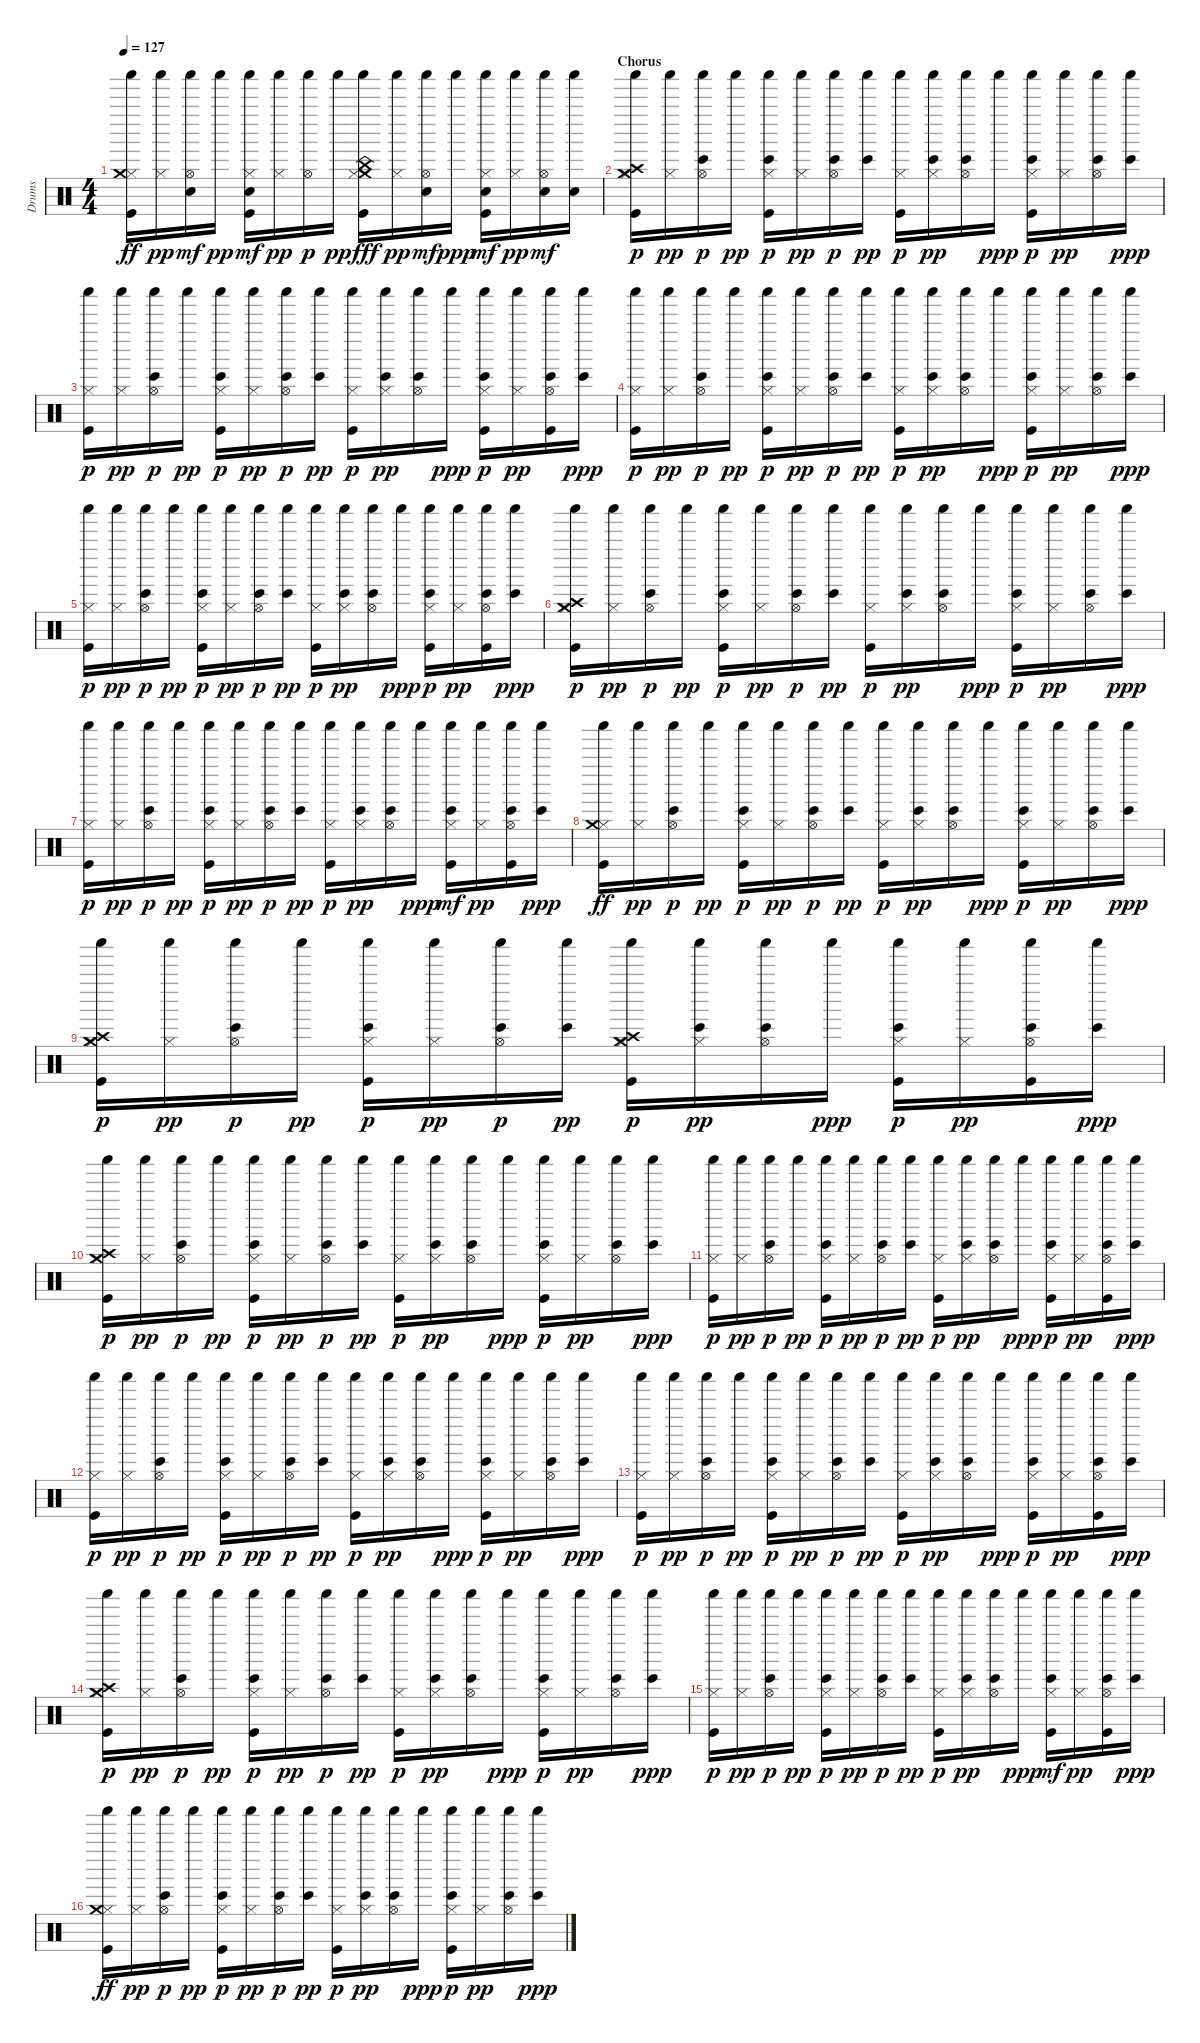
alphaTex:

\track ("Drums" "Drums") {instrument percussion}
\staff {score}
\articulation defaults
\ts (4 4)
\tempo 127
\clef neutral
\ks c
("Hi-Hat (closed)" "Shaker (hit)" "Crash medium (hit)" "Kick (hit)").16{dy ff} ("Hi-Hat (closed)" "Shaker (hit)").16{dy pp} ("Hi-Hat (open)" "Shaker (hit)" "Hand Clap (hit)").16{dy mf} "Shaker (hit)".16{dy pp} ("Hi-Hat (closed)" "Shaker (hit)" "Hand Clap (hit)" "Kick (hit)").16{dy mf} ("Hi-Hat (closed)" "Shaker (hit)").16{dy pp} ("Hi-Hat (open)" "Shaker (hit)").16{dy p} "Shaker (hit)".16{dy pp} ("Shaker (hit)" "Crash medium (hit)" "Kick (hit)" "China (hit)" "Hi-Hat (closed)").16{dy fff} ("Hi-Hat (closed)" "Shaker (hit)").16{dy pp} ("Hi-Hat (open)" "Shaker (hit)" "Hand Clap (hit)").16{dy mf} "Shaker (hit)".16{dy ppp} ("Hi-Hat (closed)" "Shaker (hit)" "Hand Clap (hit)" "Kick (hit)").16{dy mf} ("Hi-Hat (closed)" "Shaker (hit)").16{dy pp} ("Hi-Hat (open)" "Shaker (hit)" "Hand Clap (hit)").16{dy mf} ("Shaker (hit)" "Hand Clap (hit)").16 |
\section ("" "Chorus")
("Hi-Hat (closed)" "Crash medium (hit)" "Shaker (hit)" "Crash high (hit)" "Kick (hit)").16{dy p} ("Hi-Hat (closed)" "Shaker (hit)").16{dy pp} ("Bongo High (hit)" "Hi-Hat (open)" "Shaker (hit)").16{dy p} "Shaker (hit)".16{dy pp} ("Bongo High (hit)" "Kick (hit)" "Hi-Hat (closed)" "Shaker (hit)").16{dy p} ("Hi-Hat (closed)" "Shaker (hit)").16{dy pp} ("Bongo High (hit)" "Hi-Hat (open)" "Shaker (hit)").16{dy p} ("Bongo High (hit)" "Shaker (hit)").16{dy pp} ("Kick (hit)" "Hi-Hat (closed)" "Shaker (hit)").16{dy p} ("Bongo High (hit)" "Hi-Hat (closed)" "Shaker (hit)").16{dy pp} ("Bongo High (hit)" "Hi-Hat (open)" "Shaker (hit)").16 "Shaker (hit)".16{dy ppp} ("Bongo High (hit)" "Kick (hit)" "Hi-Hat (closed)" "Shaker (hit)").16{dy p} ("Hi-Hat (closed)" "Shaker (hit)").16{dy pp} ("Bongo High (hit)" "Hi-Hat (open)" "Shaker (hit)").16 ("Bongo High (hit)" "Shaker (hit)").16{dy ppp} |
("Kick (hit)" "Hi-Hat (closed)" "Shaker (hit)").16{dy p} ("Hi-Hat (closed)" "Shaker (hit)").16{dy pp} ("Bongo High (hit)" "Hi-Hat (open)" "Shaker (hit)").16{dy p} "Shaker (hit)".16{dy pp} ("Bongo High (hit)" "Kick (hit)" "Hi-Hat (closed)" "Shaker (hit)").16{dy p} ("Hi-Hat (closed)" "Shaker (hit)").16{dy pp} ("Bongo High (hit)" "Hi-Hat (open)" "Shaker (hit)").16{dy p} ("Bongo High (hit)" "Shaker (hit)").16{dy pp} ("Kick (hit)" "Hi-Hat (closed)" "Shaker (hit)").16{dy p} ("Bongo High (hit)" "Hi-Hat (closed)" "Shaker (hit)").16{dy pp} ("Bongo High (hit)" "Hi-Hat (open)" "Shaker (hit)").16 "Shaker (hit)".16{dy ppp} ("Bongo High (hit)" "Kick (hit)" "Hi-Hat (closed)" "Shaker (hit)").16{dy p} ("Hi-Hat (closed)" "Shaker (hit)").16{dy pp} ("Kick (hit)" "Bongo High (hit)" "Hi-Hat (open)" "Shaker (hit)").16 ("Bongo High (hit)" "Shaker (hit)").16{dy ppp} |
("Kick (hit)" "Hi-Hat (closed)" "Shaker (hit)").16{dy p} ("Hi-Hat (closed)" "Shaker (hit)").16{dy pp} ("Bongo High (hit)" "Hi-Hat (open)" "Shaker (hit)").16{dy p} "Shaker (hit)".16{dy pp} ("Bongo High (hit)" "Kick (hit)" "Hi-Hat (closed)" "Shaker (hit)").16{dy p} ("Hi-Hat (closed)" "Shaker (hit)").16{dy pp} ("Bongo High (hit)" "Hi-Hat (open)" "Shaker (hit)").16{dy p} ("Bongo High (hit)" "Shaker (hit)").16{dy pp} ("Kick (hit)" "Hi-Hat (closed)" "Shaker (hit)").16{dy p} ("Bongo High (hit)" "Hi-Hat (closed)" "Shaker (hit)").16{dy pp} ("Bongo High (hit)" "Hi-Hat (open)" "Shaker (hit)").16 "Shaker (hit)".16{dy ppp} ("Bongo High (hit)" "Kick (hit)" "Hi-Hat (closed)" "Shaker (hit)").16{dy p} ("Hi-Hat (closed)" "Shaker (hit)").16{dy pp} ("Bongo High (hit)" "Hi-Hat (open)" "Shaker (hit)").16 ("Bongo High (hit)" "Shaker (hit)").16{dy ppp} |
("Kick (hit)" "Hi-Hat (closed)" "Shaker (hit)").16{dy p} ("Hi-Hat (closed)" "Shaker (hit)").16{dy pp} ("Bongo High (hit)" "Hi-Hat (open)" "Shaker (hit)").16{dy p} "Shaker (hit)".16{dy pp} ("Bongo High (hit)" "Kick (hit)" "Hi-Hat (closed)" "Shaker (hit)").16{dy p} ("Hi-Hat (closed)" "Shaker (hit)").16{dy pp} ("Bongo High (hit)" "Hi-Hat (open)" "Shaker (hit)").16{dy p} ("Bongo High (hit)" "Shaker (hit)").16{dy pp} ("Kick (hit)" "Hi-Hat (closed)" "Shaker (hit)").16{dy p} ("Bongo High (hit)" "Hi-Hat (closed)" "Shaker (hit)").16{dy pp} ("Bongo High (hit)" "Hi-Hat (open)" "Shaker (hit)").16 "Shaker (hit)".16{dy ppp} ("Bongo High (hit)" "Kick (hit)" "Hi-Hat (closed)" "Shaker (hit)").16{dy p} ("Hi-Hat (closed)" "Shaker (hit)").16{dy pp} ("Kick (hit)" "Bongo High (hit)" "Hi-Hat (open)" "Shaker (hit)").16 ("Bongo High (hit)" "Shaker (hit)").16{dy ppp} |
("Kick (hit)" "Hi-Hat (closed)" "Crash medium (hit)" "Shaker (hit)" "Crash high (hit)").16{dy p} ("Hi-Hat (closed)" "Shaker (hit)").16{dy pp} ("Bongo High (hit)" "Hi-Hat (open)" "Shaker (hit)").16{dy p} "Shaker (hit)".16{dy pp} ("Bongo High (hit)" "Kick (hit)" "Hi-Hat (closed)" "Shaker (hit)").16{dy p} ("Hi-Hat (closed)" "Shaker (hit)").16{dy pp} ("Bongo High (hit)" "Hi-Hat (open)" "Shaker (hit)").16{dy p} ("Bongo High (hit)" "Shaker (hit)").16{dy pp} ("Kick (hit)" "Hi-Hat (closed)" "Shaker (hit)").16{dy p} ("Bongo High (hit)" "Hi-Hat (closed)" "Shaker (hit)").16{dy pp} ("Bongo High (hit)" "Hi-Hat (open)" "Shaker (hit)").16 "Shaker (hit)".16{dy ppp} ("Bongo High (hit)" "Kick (hit)" "Hi-Hat (closed)" "Shaker (hit)").16{dy p} ("Hi-Hat (closed)" "Shaker (hit)").16{dy pp} ("Bongo High (hit)" "Hi-Hat (open)" "Shaker (hit)").16 ("Bongo High (hit)" "Shaker (hit)").16{dy ppp} |
("Kick (hit)" "Hi-Hat (closed)" "Shaker (hit)").16{dy p} ("Hi-Hat (closed)" "Shaker (hit)").16{dy pp} ("Bongo High (hit)" "Hi-Hat (open)" "Shaker (hit)").16{dy p} "Shaker (hit)".16{dy pp} ("Bongo High (hit)" "Kick (hit)" "Hi-Hat (closed)" "Shaker (hit)").16{dy p} ("Hi-Hat (closed)" "Shaker (hit)").16{dy pp} ("Bongo High (hit)" "Hi-Hat (open)" "Shaker (hit)").16{dy p} ("Bongo High (hit)" "Shaker (hit)").16{dy pp} ("Kick (hit)" "Hi-Hat (closed)" "Shaker (hit)").16{dy p} ("Bongo High (hit)" "Hi-Hat (closed)" "Shaker (hit)").16{dy pp} ("Bongo High (hit)" "Hi-Hat (open)" "Shaker (hit)").16 "Shaker (hit)".16{dy ppp} ("Kick (hit)" "Hi-Hat (closed)" "Shaker (hit)" "Bongo High (hit)").16{dy mf} ("Hi-Hat (closed)" "Shaker (hit)").16{dy pp} ("Kick (hit)" "Bongo High (hit)" "Hi-Hat (open)" "Shaker (hit)").16 ("Bongo High (hit)" "Shaker (hit)").16{dy ppp} |
("Hi-Hat (closed)" "Shaker (hit)" "Crash medium (hit)" "Kick (hit)").16{dy ff} ("Hi-Hat (closed)" "Shaker (hit)").16{dy pp} ("Bongo High (hit)" "Hi-Hat (open)" "Shaker (hit)").16{dy p} "Shaker (hit)".16{dy pp} ("Bongo High (hit)" "Kick (hit)" "Hi-Hat (closed)" "Shaker (hit)").16{dy p} ("Hi-Hat (closed)" "Shaker (hit)").16{dy pp} ("Bongo High (hit)" "Hi-Hat (open)" "Shaker (hit)").16{dy p} ("Bongo High (hit)" "Shaker (hit)").16{dy pp} ("Kick (hit)" "Hi-Hat (closed)" "Shaker (hit)").16{dy p} ("Bongo High (hit)" "Hi-Hat (closed)" "Shaker (hit)").16{dy pp} ("Bongo High (hit)" "Hi-Hat (open)" "Shaker (hit)").16 "Shaker (hit)".16{dy ppp} ("Bongo High (hit)" "Kick (hit)" "Hi-Hat (closed)" "Shaker (hit)").16{dy p} ("Hi-Hat (closed)" "Shaker (hit)").16{dy pp} ("Bongo High (hit)" "Hi-Hat (open)" "Shaker (hit)").16 ("Bongo High (hit)" "Shaker (hit)").16{dy ppp} |
("Shaker (hit)" "Crash medium (hit)" "Kick (hit)" "Crash high (hit)" "Hi-Hat (closed)").16{dy p} ("Hi-Hat (closed)" "Shaker (hit)").16{dy pp} ("Bongo High (hit)" "Hi-Hat (open)" "Shaker (hit)").16{dy p} "Shaker (hit)".16{dy pp} ("Bongo High (hit)" "Kick (hit)" "Hi-Hat (closed)" "Shaker (hit)").16{dy p} ("Hi-Hat (closed)" "Shaker (hit)").16{dy pp} ("Bongo High (hit)" "Hi-Hat (open)" "Shaker (hit)").16{dy p} ("Bongo High (hit)" "Shaker (hit)").16{dy pp} ("Shaker (hit)" "Crash high (hit)" "Kick (hit)" "Crash medium (hit)" "Hi-Hat (closed)").16{dy p} ("Bongo High (hit)" "Hi-Hat (closed)" "Shaker (hit)").16{dy pp} ("Bongo High (hit)" "Hi-Hat (open)" "Shaker (hit)").16 "Shaker (hit)".16{dy ppp} ("Bongo High (hit)" "Kick (hit)" "Hi-Hat (closed)" "Shaker (hit)").16{dy p} ("Hi-Hat (closed)" "Shaker (hit)").16{dy pp} ("Kick (hit)" "Bongo High (hit)" "Hi-Hat (open)" "Shaker (hit)").16 ("Bongo High (hit)" "Shaker (hit)").16{dy ppp} |
("Hi-Hat (closed)" "Crash medium (hit)" "Shaker (hit)" "Crash high (hit)" "Kick (hit)").16{dy p} ("Hi-Hat (closed)" "Shaker (hit)").16{dy pp} ("Bongo High (hit)" "Hi-Hat (open)" "Shaker (hit)").16{dy p} "Shaker (hit)".16{dy pp} ("Bongo High (hit)" "Kick (hit)" "Hi-Hat (closed)" "Shaker (hit)").16{dy p} ("Hi-Hat (closed)" "Shaker (hit)").16{dy pp} ("Bongo High (hit)" "Hi-Hat (open)" "Shaker (hit)").16{dy p} ("Bongo High (hit)" "Shaker (hit)").16{dy pp} ("Kick (hit)" "Hi-Hat (closed)" "Shaker (hit)").16{dy p} ("Bongo High (hit)" "Hi-Hat (closed)" "Shaker (hit)").16{dy pp} ("Bongo High (hit)" "Hi-Hat (open)" "Shaker (hit)").16 "Shaker (hit)".16{dy ppp} ("Bongo High (hit)" "Kick (hit)" "Hi-Hat (closed)" "Shaker (hit)").16{dy p} ("Hi-Hat (closed)" "Shaker (hit)").16{dy pp} ("Bongo High (hit)" "Hi-Hat (open)" "Shaker (hit)").16 ("Bongo High (hit)" "Shaker (hit)").16{dy ppp} |
("Kick (hit)" "Hi-Hat (closed)" "Shaker (hit)").16{dy p} ("Hi-Hat (closed)" "Shaker (hit)").16{dy pp} ("Bongo High (hit)" "Hi-Hat (open)" "Shaker (hit)").16{dy p} "Shaker (hit)".16{dy pp} ("Bongo High (hit)" "Kick (hit)" "Hi-Hat (closed)" "Shaker (hit)").16{dy p} ("Hi-Hat (closed)" "Shaker (hit)").16{dy pp} ("Bongo High (hit)" "Hi-Hat (open)" "Shaker (hit)").16{dy p} ("Bongo High (hit)" "Shaker (hit)").16{dy pp} ("Kick (hit)" "Hi-Hat (closed)" "Shaker (hit)").16{dy p} ("Bongo High (hit)" "Hi-Hat (closed)" "Shaker (hit)").16{dy pp} ("Bongo High (hit)" "Hi-Hat (open)" "Shaker (hit)").16 "Shaker (hit)".16{dy ppp} ("Bongo High (hit)" "Kick (hit)" "Hi-Hat (closed)" "Shaker (hit)").16{dy p} ("Hi-Hat (closed)" "Shaker (hit)").16{dy pp} ("Kick (hit)" "Bongo High (hit)" "Hi-Hat (open)" "Shaker (hit)").16 ("Bongo High (hit)" "Shaker (hit)").16{dy ppp} |
("Kick (hit)" "Hi-Hat (closed)" "Shaker (hit)").16{dy p} ("Hi-Hat (closed)" "Shaker (hit)").16{dy pp} ("Bongo High (hit)" "Hi-Hat (open)" "Shaker (hit)").16{dy p} "Shaker (hit)".16{dy pp} ("Bongo High (hit)" "Kick (hit)" "Hi-Hat (closed)" "Shaker (hit)").16{dy p} ("Hi-Hat (closed)" "Shaker (hit)").16{dy pp} ("Bongo High (hit)" "Hi-Hat (open)" "Shaker (hit)").16{dy p} ("Bongo High (hit)" "Shaker (hit)").16{dy pp} ("Kick (hit)" "Hi-Hat (closed)" "Shaker (hit)").16{dy p} ("Bongo High (hit)" "Hi-Hat (closed)" "Shaker (hit)").16{dy pp} ("Bongo High (hit)" "Hi-Hat (open)" "Shaker (hit)").16 "Shaker (hit)".16{dy ppp} ("Bongo High (hit)" "Kick (hit)" "Hi-Hat (closed)" "Shaker (hit)").16{dy p} ("Hi-Hat (closed)" "Shaker (hit)").16{dy pp} ("Bongo High (hit)" "Hi-Hat (open)" "Shaker (hit)").16 ("Bongo High (hit)" "Shaker (hit)").16{dy ppp} |
("Kick (hit)" "Hi-Hat (closed)" "Shaker (hit)").16{dy p} ("Hi-Hat (closed)" "Shaker (hit)").16{dy pp} ("Bongo High (hit)" "Hi-Hat (open)" "Shaker (hit)").16{dy p} "Shaker (hit)".16{dy pp} ("Bongo High (hit)" "Kick (hit)" "Hi-Hat (closed)" "Shaker (hit)").16{dy p} ("Hi-Hat (closed)" "Shaker (hit)").16{dy pp} ("Bongo High (hit)" "Hi-Hat (open)" "Shaker (hit)").16{dy p} ("Bongo High (hit)" "Shaker (hit)").16{dy pp} ("Kick (hit)" "Hi-Hat (closed)" "Shaker (hit)").16{dy p} ("Bongo High (hit)" "Hi-Hat (closed)" "Shaker (hit)").16{dy pp} ("Bongo High (hit)" "Hi-Hat (open)" "Shaker (hit)").16 "Shaker (hit)".16{dy ppp} ("Bongo High (hit)" "Kick (hit)" "Hi-Hat (closed)" "Shaker (hit)").16{dy p} ("Hi-Hat (closed)" "Shaker (hit)").16{dy pp} ("Kick (hit)" "Bongo High (hit)" "Hi-Hat (open)" "Shaker (hit)").16 ("Bongo High (hit)" "Shaker (hit)").16{dy ppp} |
("Kick (hit)" "Hi-Hat (closed)" "Crash medium (hit)" "Shaker (hit)" "Crash high (hit)").16{dy p} ("Hi-Hat (closed)" "Shaker (hit)").16{dy pp} ("Bongo High (hit)" "Hi-Hat (open)" "Shaker (hit)").16{dy p} "Shaker (hit)".16{dy pp} ("Bongo High (hit)" "Kick (hit)" "Hi-Hat (closed)" "Shaker (hit)").16{dy p} ("Hi-Hat (closed)" "Shaker (hit)").16{dy pp} ("Bongo High (hit)" "Hi-Hat (open)" "Shaker (hit)").16{dy p} ("Bongo High (hit)" "Shaker (hit)").16{dy pp} ("Kick (hit)" "Hi-Hat (closed)" "Shaker (hit)").16{dy p} ("Bongo High (hit)" "Hi-Hat (closed)" "Shaker (hit)").16{dy pp} ("Bongo High (hit)" "Hi-Hat (open)" "Shaker (hit)").16 "Shaker (hit)".16{dy ppp} ("Bongo High (hit)" "Kick (hit)" "Hi-Hat (closed)" "Shaker (hit)").16{dy p} ("Hi-Hat (closed)" "Shaker (hit)").16{dy pp} ("Bongo High (hit)" "Hi-Hat (open)" "Shaker (hit)").16 ("Bongo High (hit)" "Shaker (hit)").16{dy ppp} |
("Kick (hit)" "Hi-Hat (closed)" "Shaker (hit)").16{dy p} ("Hi-Hat (closed)" "Shaker (hit)").16{dy pp} ("Bongo High (hit)" "Hi-Hat (open)" "Shaker (hit)").16{dy p} "Shaker (hit)".16{dy pp} ("Bongo High (hit)" "Kick (hit)" "Hi-Hat (closed)" "Shaker (hit)").16{dy p} ("Hi-Hat (closed)" "Shaker (hit)").16{dy pp} ("Bongo High (hit)" "Hi-Hat (open)" "Shaker (hit)").16{dy p} ("Bongo High (hit)" "Shaker (hit)").16{dy pp} ("Kick (hit)" "Hi-Hat (closed)" "Shaker (hit)").16{dy p} ("Bongo High (hit)" "Hi-Hat (closed)" "Shaker (hit)").16{dy pp} ("Bongo High (hit)" "Hi-Hat (open)" "Shaker (hit)").16 "Shaker (hit)".16{dy ppp} ("Kick (hit)" "Hi-Hat (closed)" "Shaker (hit)" "Bongo High (hit)").16{dy mf} ("Hi-Hat (closed)" "Shaker (hit)").16{dy pp} ("Kick (hit)" "Bongo High (hit)" "Hi-Hat (open)" "Shaker (hit)").16 ("Bongo High (hit)" "Shaker (hit)").16{dy ppp} |
("Hi-Hat (closed)" "Shaker (hit)" "Crash medium (hit)" "Kick (hit)").16{dy ff} ("Hi-Hat (closed)" "Shaker (hit)").16{dy pp} ("Bongo High (hit)" "Hi-Hat (open)" "Shaker (hit)").16{dy p} "Shaker (hit)".16{dy pp} ("Bongo High (hit)" "Kick (hit)" "Hi-Hat (closed)" "Shaker (hit)").16{dy p} ("Hi-Hat (closed)" "Shaker (hit)").16{dy pp} ("Bongo High (hit)" "Hi-Hat (open)" "Shaker (hit)").16{dy p} ("Bongo High (hit)" "Shaker (hit)").16{dy pp} ("Kick (hit)" "Hi-Hat (closed)" "Shaker (hit)").16{dy p} ("Bongo High (hit)" "Hi-Hat (closed)" "Shaker (hit)").16{dy pp} ("Bongo High (hit)" "Hi-Hat (open)" "Shaker (hit)").16 "Shaker (hit)".16{dy ppp} ("Bongo High (hit)" "Kick (hit)" "Hi-Hat (closed)" "Shaker (hit)").16{dy p} ("Hi-Hat (closed)" "Shaker (hit)").16{dy pp} ("Bongo High (hit)" "Hi-Hat (open)" "Shaker (hit)").16 ("Bongo High (hit)" "Shaker (hit)").16{dy ppp}
